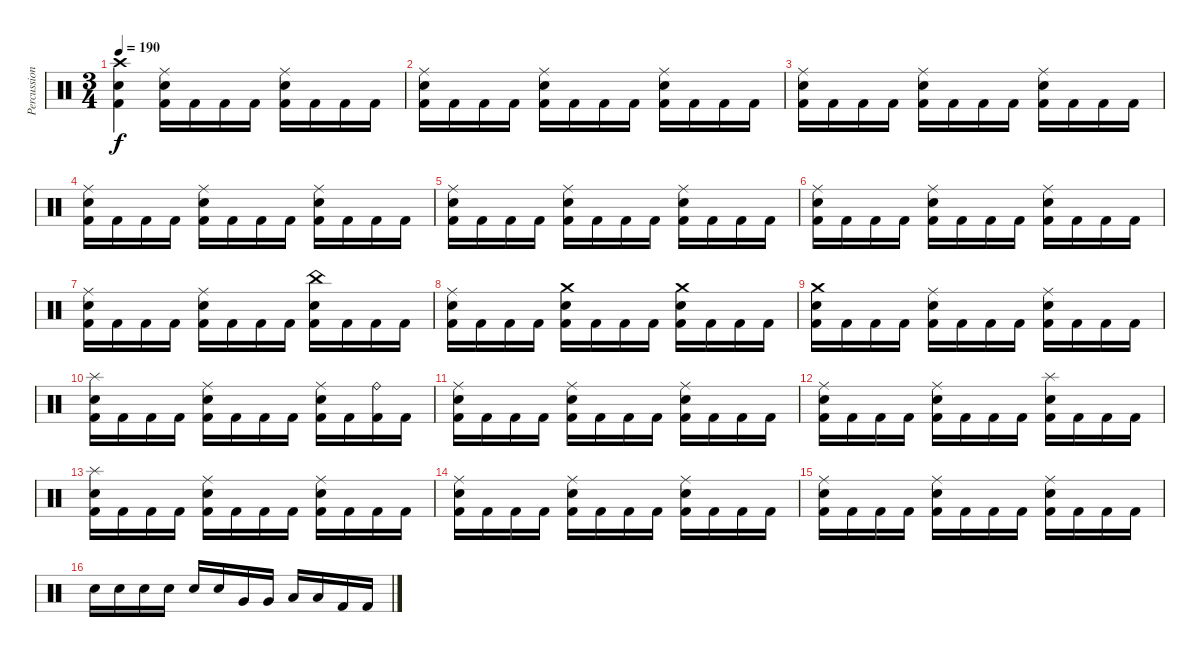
\track ("Percussion" "Percussion") {instrument percussion}
\staff {score}
\articulation defaults
\ts (3 4)
\tempo 190
\clef neutral
\ks c
("Crash high (hit)" "Electric Snare (hit)" "Kick (hit) 2").4{dy f} ("Ride (middle)" "Electric Snare (hit)" "Kick (hit) 2").16 "Kick (hit) 2".16 "Kick (hit) 2".16 "Kick (hit) 2".16 ("Ride (middle)" "Electric Snare (hit)" "Kick (hit) 2").16 "Kick (hit) 2".16 "Kick (hit) 2".16 "Kick (hit) 2".16 |
("Ride (middle)" "Electric Snare (hit)" "Kick (hit) 2").16 "Kick (hit) 2".16 "Kick (hit) 2".16 "Kick (hit) 2".16 ("Ride (middle)" "Electric Snare (hit)" "Kick (hit) 2").16 "Kick (hit) 2".16 "Kick (hit) 2".16 "Kick (hit) 2".16 ("Ride (middle)" "Electric Snare (hit)" "Kick (hit) 2").16 "Kick (hit) 2".16 "Kick (hit) 2".16 "Kick (hit) 2".16 |
("Ride (middle)" "Electric Snare (hit)" "Kick (hit) 2").16 "Kick (hit) 2".16 "Kick (hit) 2".16 "Kick (hit) 2".16 ("Ride (middle)" "Electric Snare (hit)" "Kick (hit) 2").16 "Kick (hit) 2".16 "Kick (hit) 2".16 "Kick (hit) 2".16 ("Ride (middle)" "Electric Snare (hit)" "Kick (hit) 2").16 "Kick (hit) 2".16 "Kick (hit) 2".16 "Kick (hit) 2".16 |
("Ride (middle)" "Electric Snare (hit)" "Kick (hit) 2").16 "Kick (hit) 2".16 "Kick (hit) 2".16 "Kick (hit) 2".16 ("Ride (middle)" "Electric Snare (hit)" "Kick (hit) 2").16 "Kick (hit) 2".16 "Kick (hit) 2".16 "Kick (hit) 2".16 ("Ride (middle)" "Electric Snare (hit)" "Kick (hit) 2").16 "Kick (hit) 2".16 "Kick (hit) 2".16 "Kick (hit) 2".16 |
("Ride (middle)" "Electric Snare (hit)" "Kick (hit) 2").16 "Kick (hit) 2".16 "Kick (hit) 2".16 "Kick (hit) 2".16 ("Ride (middle)" "Electric Snare (hit)" "Kick (hit) 2").16 "Kick (hit) 2".16 "Kick (hit) 2".16 "Kick (hit) 2".16 ("Ride (middle)" "Electric Snare (hit)" "Kick (hit) 2").16 "Kick (hit) 2".16 "Kick (hit) 2".16 "Kick (hit) 2".16 |
("Ride (middle)" "Electric Snare (hit)" "Kick (hit) 2").16 "Kick (hit) 2".16 "Kick (hit) 2".16 "Kick (hit) 2".16 ("Ride (middle)" "Electric Snare (hit)" "Kick (hit) 2").16 "Kick (hit) 2".16 "Kick (hit) 2".16 "Kick (hit) 2".16 ("Ride (middle)" "Electric Snare (hit)" "Kick (hit) 2").16 "Kick (hit) 2".16 "Kick (hit) 2".16 "Kick (hit) 2".16 |
("Ride (middle)" "Electric Snare (hit)" "Kick (hit) 2").16 "Kick (hit) 2".16 "Kick (hit) 2".16 "Kick (hit) 2".16 ("Ride (middle)" "Electric Snare (hit)" "Kick (hit) 2").16 "Kick (hit) 2".16 "Kick (hit) 2".16 "Kick (hit) 2".16 ("China (hit)" "Electric Snare (hit)" "Kick (hit) 2").16 "Kick (hit) 2".16 "Kick (hit) 2".16 "Kick (hit) 2".16 |
("Ride (middle)" "Electric Snare (hit)" "Kick (hit) 2").16 "Kick (hit) 2".16 "Kick (hit) 2".16 "Kick (hit) 2".16 ("Crash medium (hit)" "Electric Snare (hit)" "Kick (hit) 2").16 "Kick (hit) 2".16 "Kick (hit) 2".16 "Kick (hit) 2".16 ("Crash medium (hit)" "Electric Snare (hit)" "Kick (hit) 2").16 "Kick (hit) 2".16 "Kick (hit) 2".16 "Kick (hit) 2".16 |
("Crash medium (hit)" "Electric Snare (hit)" "Kick (hit) 2").16 "Kick (hit) 2".16 "Kick (hit) 2".16 "Kick (hit) 2".16 ("Ride (middle)" "Electric Snare (hit)" "Kick (hit) 2").16 "Kick (hit) 2".16 "Kick (hit) 2".16 "Kick (hit) 2".16 ("Ride (middle)" "Electric Snare (hit)" "Kick (hit) 2").16 "Kick (hit) 2".16 "Kick (hit) 2".16 "Kick (hit) 2".16 |
("Splash (hit)" "Electric Snare (hit)" "Kick (hit) 2").16 "Kick (hit) 2".16 "Kick (hit) 2".16 "Kick (hit) 2".16 ("Ride (middle)" "Electric Snare (hit)" "Kick (hit) 2").16 "Kick (hit) 2".16 "Kick (hit) 2".16 "Kick (hit) 2".16 ("Ride (middle)" "Electric Snare (hit)" "Kick (hit) 2").16 "Kick (hit) 2".16 ("Ride (bell)" "Kick (hit) 2").16 "Kick (hit) 2".16 |
("Ride (middle)" "Electric Snare (hit)" "Kick (hit) 2").16 "Kick (hit) 2".16 "Kick (hit) 2".16 "Kick (hit) 2".16 ("Ride (middle)" "Electric Snare (hit)" "Kick (hit) 2").16 "Kick (hit) 2".16 "Kick (hit) 2".16 "Kick (hit) 2".16 ("Ride (middle)" "Electric Snare (hit)" "Kick (hit) 2").16 "Kick (hit) 2".16 "Kick (hit) 2".16 "Kick (hit) 2".16 |
("Ride (middle)" "Electric Snare (hit)" "Kick (hit) 2").16 "Kick (hit) 2".16 "Kick (hit) 2".16 "Kick (hit) 2".16 ("Ride (middle)" "Electric Snare (hit)" "Kick (hit) 2").16 "Kick (hit) 2".16 "Kick (hit) 2".16 "Kick (hit) 2".16 ("Splash (hit)" "Electric Snare (hit)" "Kick (hit) 2").16 "Kick (hit) 2".16 "Kick (hit) 2".16 "Kick (hit) 2".16 |
("Splash (hit)" "Electric Snare (hit)" "Kick (hit) 2").16 "Kick (hit) 2".16 "Kick (hit) 2".16 "Kick (hit) 2".16 ("Ride (middle)" "Electric Snare (hit)" "Kick (hit) 2").16 "Kick (hit) 2".16 "Kick (hit) 2".16 "Kick (hit) 2".16 ("Ride (middle)" "Electric Snare (hit)" "Kick (hit) 2").16 "Kick (hit) 2".16 "Kick (hit) 2".16 "Kick (hit) 2".16 |
("Ride (middle)" "Electric Snare (hit)" "Kick (hit) 2").16 "Kick (hit) 2".16 "Kick (hit) 2".16 "Kick (hit) 2".16 ("Ride (middle)" "Electric Snare (hit)" "Kick (hit) 2").16 "Kick (hit) 2".16 "Kick (hit) 2".16 "Kick (hit) 2".16 ("Ride (middle)" "Electric Snare (hit)" "Kick (hit) 2").16 "Kick (hit) 2".16 "Kick (hit) 2".16 "Kick (hit) 2".16 |
("Ride (middle)" "Electric Snare (hit)" "Kick (hit) 2").16 "Kick (hit) 2".16 "Kick (hit) 2".16 "Kick (hit) 2".16 ("Ride (middle)" "Electric Snare (hit)" "Kick (hit) 2").16 "Kick (hit) 2".16 "Kick (hit) 2".16 "Kick (hit) 2".16 ("Ride (middle)" "Electric Snare (hit)" "Kick (hit) 2").16 "Kick (hit) 2".16 "Kick (hit) 2".16 "Kick (hit) 2".16 |
"Electric Snare (hit)".16 "Electric Snare (hit)".16 "Electric Snare (hit)".16 "Electric Snare (hit)".16 "Electric Snare (hit)".16 "Electric Snare (hit)".16 "Very Low Tom (hit)".16 "Very Low Tom (hit)".16 "Low Floor Tom (hit)".16 "Low Floor Tom (hit)".16 "Kick (hit) 2".16 "Kick (hit) 2".16
